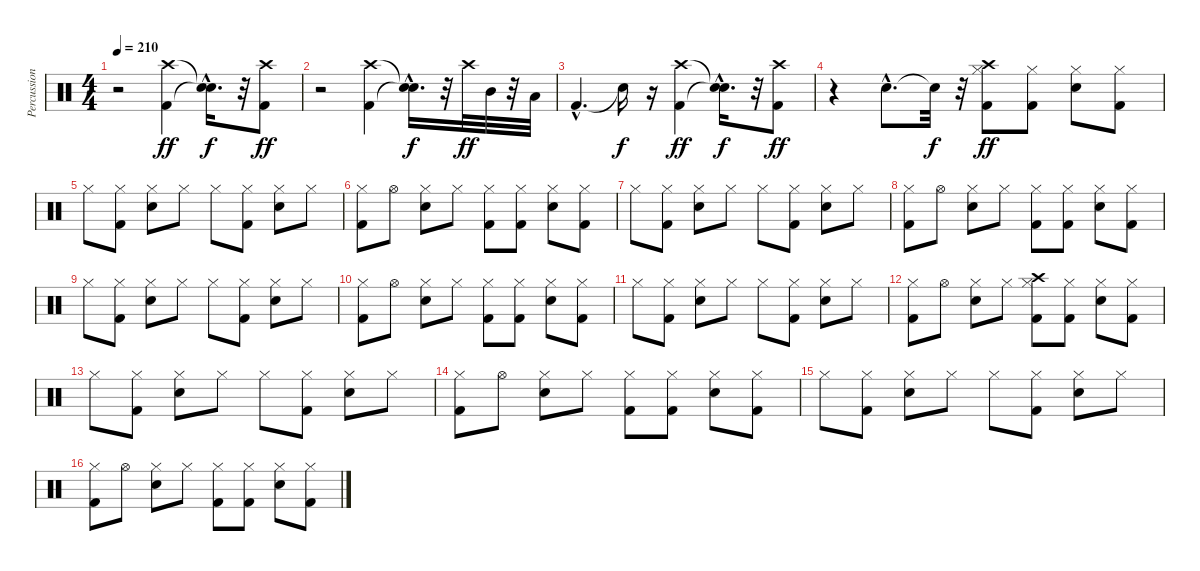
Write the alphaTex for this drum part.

\track ("Percussions" "Percussion") {instrument percussion}
\staff {score}
\articulation defaults
\ts (4 4)
\tempo 210
\clef neutral
\ks c
r.2{dy f} ("Kick (hit) 2" "Crash high (hit)").4{dy ff} ("Snare (hit)"{hac t} "Snare (hit)"{hac t}).16{d dy f} r.32 ("Kick (hit) 2" "Crash high (hit)").8{dy ff} |
r.2 ("Kick (hit) 2" "Crash high (hit)").4 ("Snare (hit)"{hac t} "Snare (hit)"{hac t}).16{d dy f} r.32 "Crash high (hit)".32{dy ff} "Mid Tom (hit)".32 r.32 "Low Tom (hit)".32 |
"Kick (hit) 2"{hac}.4{d} "Snare (hit)"{t}.16{dy f} r.16 ("Kick (hit) 2" "Crash high (hit)").4{dy ff} ("Snare (hit)"{hac t} "Snare (hit)"{hac t}).16{d dy f} r.32 ("Kick (hit) 2" "Crash high (hit)").8{dy ff} |
r.4 "Snare (hit) 2"{hac}.8{d} "Snare (hit)"{t}.32{dy f} r.32 ("Kick (hit) 2" "Hi-Hat (closed)" "Crash high (hit)").8{dy ff} ("Kick (hit) 2" "Hi-Hat (closed)").8 ("Snare (hit) 2" "Hi-Hat (closed)").8 ("Kick (hit) 2" "Hi-Hat (closed)").8 |
"Hi-Hat (closed)".8 ("Kick (hit) 2" "Hi-Hat (closed)").8 ("Snare (hit) 2" "Hi-Hat (closed)").8 "Hi-Hat (closed)".8 "Hi-Hat (closed)".8 ("Kick (hit) 2" "Hi-Hat (closed)").8 ("Snare (hit) 2" "Hi-Hat (closed)").8 "Hi-Hat (closed)".8 |
("Kick (hit) 2" "Hi-Hat (closed)").8 "Hi-Hat (open)".8 ("Snare (hit) 2" "Hi-Hat (closed)").8 "Hi-Hat (closed)".8 ("Kick (hit) 2" "Hi-Hat (closed)").8 ("Kick (hit) 2" "Hi-Hat (closed)").8 ("Snare (hit) 2" "Hi-Hat (closed)").8 ("Kick (hit) 2" "Hi-Hat (closed)").8 |
"Hi-Hat (closed)".8 ("Kick (hit) 2" "Hi-Hat (closed)").8 ("Snare (hit) 2" "Hi-Hat (closed)").8 "Hi-Hat (closed)".8 "Hi-Hat (closed)".8 ("Kick (hit) 2" "Hi-Hat (closed)").8 ("Snare (hit) 2" "Hi-Hat (closed)").8 "Hi-Hat (closed)".8 |
("Kick (hit) 2" "Hi-Hat (closed)").8 "Hi-Hat (open)".8 ("Snare (hit) 2" "Hi-Hat (closed)").8 "Hi-Hat (closed)".8 ("Kick (hit) 2" "Hi-Hat (closed)").8 ("Kick (hit) 2" "Hi-Hat (closed)").8 ("Snare (hit) 2" "Hi-Hat (closed)").8 ("Kick (hit) 2" "Hi-Hat (closed)").8 |
"Hi-Hat (closed)".8 ("Kick (hit) 2" "Hi-Hat (closed)").8 ("Snare (hit) 2" "Hi-Hat (closed)").8 "Hi-Hat (closed)".8 "Hi-Hat (closed)".8 ("Kick (hit) 2" "Hi-Hat (closed)").8 ("Snare (hit) 2" "Hi-Hat (closed)").8 "Hi-Hat (closed)".8 |
("Kick (hit) 2" "Hi-Hat (closed)").8 "Hi-Hat (open)".8 ("Snare (hit) 2" "Hi-Hat (closed)").8 "Hi-Hat (closed)".8 ("Kick (hit) 2" "Hi-Hat (closed)").8 ("Kick (hit) 2" "Hi-Hat (closed)").8 ("Snare (hit) 2" "Hi-Hat (closed)").8 ("Kick (hit) 2" "Hi-Hat (closed)").8 |
"Hi-Hat (closed)".8 ("Kick (hit) 2" "Hi-Hat (closed)").8 ("Snare (hit) 2" "Hi-Hat (closed)").8 "Hi-Hat (closed)".8 "Hi-Hat (closed)".8 ("Kick (hit) 2" "Hi-Hat (closed)").8 ("Snare (hit) 2" "Hi-Hat (closed)").8 "Hi-Hat (closed)".8 |
("Kick (hit) 2" "Hi-Hat (closed)").8 "Hi-Hat (open)".8 ("Snare (hit) 2" "Hi-Hat (closed)").8 "Hi-Hat (closed)".8 ("Kick (hit) 2" "Hi-Hat (closed)" "Crash high (hit)").8 ("Kick (hit) 2" "Hi-Hat (closed)").8 ("Snare (hit) 2" "Hi-Hat (closed)").8 ("Kick (hit) 2" "Hi-Hat (closed)").8 |
"Hi-Hat (closed)".8 ("Kick (hit) 2" "Hi-Hat (closed)").8 ("Snare (hit) 2" "Hi-Hat (closed)").8 "Hi-Hat (closed)".8 "Hi-Hat (closed)".8 ("Kick (hit) 2" "Hi-Hat (closed)").8 ("Snare (hit) 2" "Hi-Hat (closed)").8 "Hi-Hat (closed)".8 |
("Kick (hit) 2" "Hi-Hat (closed)").8 "Hi-Hat (open)".8 ("Snare (hit) 2" "Hi-Hat (closed)").8 "Hi-Hat (closed)".8 ("Kick (hit) 2" "Hi-Hat (closed)").8 ("Kick (hit) 2" "Hi-Hat (closed)").8 ("Snare (hit) 2" "Hi-Hat (closed)").8 ("Kick (hit) 2" "Hi-Hat (closed)").8 |
"Hi-Hat (closed)".8 ("Kick (hit) 2" "Hi-Hat (closed)").8 ("Snare (hit) 2" "Hi-Hat (closed)").8 "Hi-Hat (closed)".8 "Hi-Hat (closed)".8 ("Kick (hit) 2" "Hi-Hat (closed)").8 ("Snare (hit) 2" "Hi-Hat (closed)").8 "Hi-Hat (closed)".8 |
("Kick (hit) 2" "Hi-Hat (closed)").8 "Hi-Hat (open)".8 ("Snare (hit) 2" "Hi-Hat (closed)").8 "Hi-Hat (closed)".8 ("Kick (hit) 2" "Hi-Hat (closed)").8 ("Kick (hit) 2" "Hi-Hat (closed)").8 ("Snare (hit) 2" "Hi-Hat (closed)").8 ("Kick (hit) 2" "Hi-Hat (closed)").8
